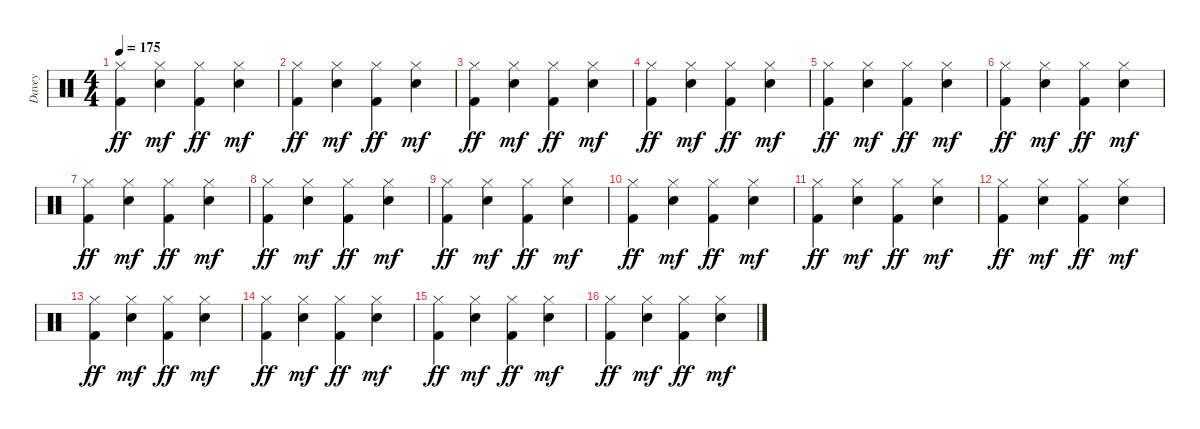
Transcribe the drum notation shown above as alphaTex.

\track ("Davey" "Davey") {instrument percussion}
\staff {score}
\articulation defaults
\ts (4 4)
\tempo 175
\clef neutral
\ks c
("Hi-Hat (closed)" "Kick (hit) 2").4{dy ff} ("Hi-Hat (closed)" "Electric Snare (hit)").4{dy mf} ("Hi-Hat (closed)" "Kick (hit) 2").4{dy ff} ("Hi-Hat (closed)" "Electric Snare (hit)").4{dy mf} |
("Hi-Hat (closed)" "Kick (hit) 2").4{dy ff} ("Hi-Hat (closed)" "Electric Snare (hit)").4{dy mf} ("Hi-Hat (closed)" "Kick (hit) 2").4{dy ff} ("Hi-Hat (closed)" "Electric Snare (hit)").4{dy mf} |
("Hi-Hat (closed)" "Kick (hit) 2").4{dy ff} ("Hi-Hat (closed)" "Electric Snare (hit)").4{dy mf} ("Hi-Hat (closed)" "Kick (hit) 2").4{dy ff} ("Hi-Hat (closed)" "Electric Snare (hit)").4{dy mf} |
("Hi-Hat (closed)" "Kick (hit) 2").4{dy ff} ("Hi-Hat (closed)" "Electric Snare (hit)").4{dy mf} ("Hi-Hat (closed)" "Kick (hit) 2").4{dy ff} ("Hi-Hat (closed)" "Electric Snare (hit)").4{dy mf} |
("Hi-Hat (closed)" "Kick (hit) 2").4{dy ff} ("Hi-Hat (closed)" "Electric Snare (hit)").4{dy mf} ("Hi-Hat (closed)" "Kick (hit) 2").4{dy ff} ("Hi-Hat (closed)" "Electric Snare (hit)").4{dy mf} |
("Hi-Hat (closed)" "Kick (hit) 2").4{dy ff} ("Hi-Hat (closed)" "Electric Snare (hit)").4{dy mf} ("Hi-Hat (closed)" "Kick (hit) 2").4{dy ff} ("Hi-Hat (closed)" "Electric Snare (hit)").4{dy mf} |
("Hi-Hat (closed)" "Kick (hit) 2").4{dy ff} ("Hi-Hat (closed)" "Electric Snare (hit)").4{dy mf} ("Hi-Hat (closed)" "Kick (hit) 2").4{dy ff} ("Hi-Hat (closed)" "Electric Snare (hit)").4{dy mf} |
("Hi-Hat (closed)" "Kick (hit) 2").4{dy ff} ("Hi-Hat (closed)" "Electric Snare (hit)").4{dy mf} ("Hi-Hat (closed)" "Kick (hit) 2").4{dy ff} ("Hi-Hat (closed)" "Electric Snare (hit)").4{dy mf} |
("Hi-Hat (closed)" "Kick (hit) 2").4{dy ff} ("Hi-Hat (closed)" "Electric Snare (hit)").4{dy mf} ("Hi-Hat (closed)" "Kick (hit) 2").4{dy ff} ("Hi-Hat (closed)" "Electric Snare (hit)").4{dy mf} |
("Hi-Hat (closed)" "Kick (hit) 2").4{dy ff} ("Hi-Hat (closed)" "Electric Snare (hit)").4{dy mf} ("Hi-Hat (closed)" "Kick (hit) 2").4{dy ff} ("Hi-Hat (closed)" "Electric Snare (hit)").4{dy mf} |
("Hi-Hat (closed)" "Kick (hit) 2").4{dy ff} ("Hi-Hat (closed)" "Electric Snare (hit)").4{dy mf} ("Hi-Hat (closed)" "Kick (hit) 2").4{dy ff} ("Hi-Hat (closed)" "Electric Snare (hit)").4{dy mf} |
("Hi-Hat (closed)" "Kick (hit) 2").4{dy ff} ("Hi-Hat (closed)" "Electric Snare (hit)").4{dy mf} ("Hi-Hat (closed)" "Kick (hit) 2").4{dy ff} ("Hi-Hat (closed)" "Electric Snare (hit)").4{dy mf} |
("Hi-Hat (closed)" "Kick (hit) 2").4{dy ff} ("Hi-Hat (closed)" "Electric Snare (hit)").4{dy mf} ("Hi-Hat (closed)" "Kick (hit) 2").4{dy ff} ("Hi-Hat (closed)" "Electric Snare (hit)").4{dy mf} |
("Hi-Hat (closed)" "Kick (hit) 2").4{dy ff} ("Hi-Hat (closed)" "Electric Snare (hit)").4{dy mf} ("Hi-Hat (closed)" "Kick (hit) 2").4{dy ff} ("Hi-Hat (closed)" "Electric Snare (hit)").4{dy mf} |
("Hi-Hat (closed)" "Kick (hit) 2").4{dy ff} ("Hi-Hat (closed)" "Electric Snare (hit)").4{dy mf} ("Hi-Hat (closed)" "Kick (hit) 2").4{dy ff} ("Hi-Hat (closed)" "Electric Snare (hit)").4{dy mf} |
("Hi-Hat (closed)" "Kick (hit) 2").4{dy ff} ("Hi-Hat (closed)" "Electric Snare (hit)").4{dy mf} ("Hi-Hat (closed)" "Kick (hit) 2").4{dy ff} ("Hi-Hat (closed)" "Electric Snare (hit)").4{dy mf}
